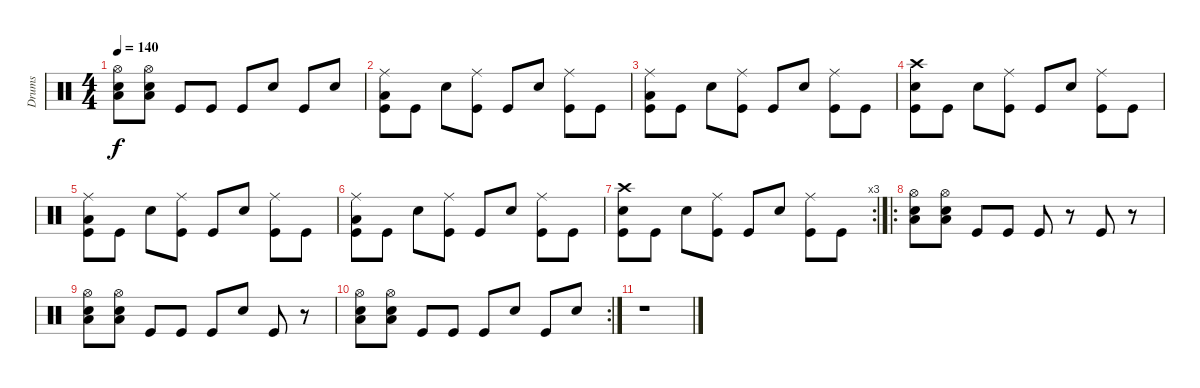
\track ("Drums" "Drums") {instrument percussion}
\staff {score}
\articulation defaults
\ts (4 4)
\tempo 140
\clef neutral
\ks c
("Hi-Hat (open)" "Snare (hit) 2" "Low Floor Tom (hit)").8{dy f} ("Hi-Hat (open)" "Snare (hit) 2" "Low Floor Tom (hit)").8 "Kick (hit)".8 "Kick (hit)".8 "Kick (hit)".8 "Snare (hit) 2".8 "Kick (hit)".8 "Snare (hit) 2".8 |
("Ride (middle)" "Low Floor Tom (hit)" "Kick (hit)").8 "Kick (hit)".8 "Snare (hit) 2".8 ("Ride (middle)" "Kick (hit)").8 "Kick (hit)".8 "Snare (hit) 2".8 ("Ride (middle)" "Kick (hit)").8 "Kick (hit)".8 |
("Ride (middle)" "Low Floor Tom (hit)" "Kick (hit)").8 "Kick (hit)".8 "Snare (hit) 2".8 ("Ride (middle)" "Kick (hit)").8 "Kick (hit)".8 "Snare (hit) 2".8 ("Ride (middle)" "Kick (hit)").8 "Kick (hit)".8 |
("Crash high (hit)" "Snare (hit) 2" "Kick (hit)").8 "Kick (hit)".8 "Snare (hit) 2".8 ("Ride (middle)" "Kick (hit)").8 "Kick (hit)".8 "Snare (hit) 2".8 ("Ride (middle)" "Kick (hit)").8 "Kick (hit)".8 |
("Ride (middle)" "Low Floor Tom (hit)" "Kick (hit)").8 "Kick (hit)".8 "Snare (hit) 2".8 ("Ride (middle)" "Kick (hit)").8 "Kick (hit)".8 "Snare (hit) 2".8 ("Ride (middle)" "Kick (hit)").8 "Kick (hit)".8 |
("Ride (middle)" "Low Floor Tom (hit)" "Kick (hit)").8 "Kick (hit)".8 "Snare (hit) 2".8 ("Ride (middle)" "Kick (hit)").8 "Kick (hit)".8 "Snare (hit) 2".8 ("Ride (middle)" "Kick (hit)").8 "Kick (hit)".8 |
\rc 3
("Crash high (hit)" "Snare (hit) 2" "Kick (hit)").8 "Kick (hit)".8 "Snare (hit) 2".8 ("Ride (middle)" "Kick (hit)").8 "Kick (hit)".8 "Snare (hit) 2".8 ("Ride (middle)" "Kick (hit)").8 "Kick (hit)".8 |
\ro
("Hi-Hat (open)" "Snare (hit) 2" "Low Floor Tom (hit)").8 ("Hi-Hat (open)" "Snare (hit) 2" "Low Floor Tom (hit)").8 "Kick (hit)".8 "Kick (hit)".8 "Kick (hit)".8 r.8 "Kick (hit)".8 r.8 |
("Hi-Hat (open)" "Snare (hit) 2" "Low Floor Tom (hit)").8 ("Hi-Hat (open)" "Snare (hit) 2" "Low Floor Tom (hit)").8 "Kick (hit)".8 "Kick (hit)".8 "Kick (hit)".8 "Snare (hit) 2".8 "Kick (hit)".8 r.8 |
\rc 2
("Hi-Hat (open)" "Snare (hit) 2" "Low Floor Tom (hit)").8 ("Hi-Hat (open)" "Snare (hit) 2" "Low Floor Tom (hit)").8 "Kick (hit)".8 "Kick (hit)".8 "Kick (hit)".8 "Snare (hit) 2".8 "Kick (hit)".8 "Snare (hit) 2".8 |
r.1
